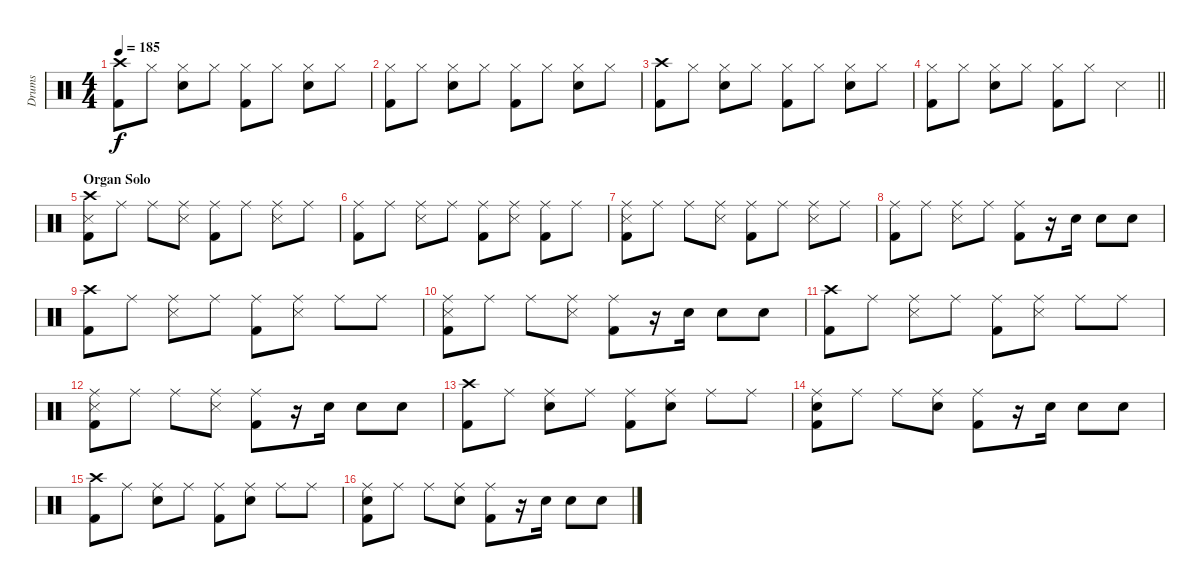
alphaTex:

\track ("Drums" "Drums") {instrument percussion}
\staff {score}
\articulation defaults
\ts (4 4)
\tempo 185
\clef neutral
\ks c
("Crash high (hit)" "Kick (hit) 2").8{dy f} "Hi-Hat (closed)".8 ("Hi-Hat (closed)" "Snare (hit) 2").8 "Hi-Hat (closed)".8 ("Hi-Hat (closed)" "Kick (hit) 2").8 "Hi-Hat (closed)".8 ("Hi-Hat (closed)" "Snare (hit) 2").8 "Hi-Hat (closed)".8 |
("Hi-Hat (closed)" "Kick (hit) 2").8 "Hi-Hat (closed)".8 ("Hi-Hat (closed)" "Snare (hit) 2").8 "Hi-Hat (closed)".8 ("Hi-Hat (closed)" "Kick (hit) 2").8 "Hi-Hat (closed)".8 ("Hi-Hat (closed)" "Snare (hit) 2").8 "Hi-Hat (closed)".8 |
("Crash high (hit)" "Kick (hit) 2").8 "Hi-Hat (closed)".8 ("Hi-Hat (closed)" "Snare (hit) 2").8 "Hi-Hat (closed)".8 ("Hi-Hat (closed)" "Kick (hit) 2").8 "Hi-Hat (closed)".8 ("Hi-Hat (closed)" "Snare (hit) 2").8 "Hi-Hat (closed)".8 |
\barLineRight lightlight
("Hi-Hat (closed)" "Kick (hit) 2").8 "Hi-Hat (closed)".8 ("Hi-Hat (closed)" "Snare (hit) 2").8 "Hi-Hat (closed)".8 ("Hi-Hat (closed)" "Kick (hit) 2").8 "Hi-Hat (closed)".8 "Snare (side stick) 3".4 |
\section ("" "Organ Solo")
("Crash high (hit)" "Snare (side stick) 3" "Kick (hit) 2").8 "Ride (middle)".8 "Ride (middle)".8 ("Ride (middle)" "Snare (side stick) 3").8 ("Ride (middle)" "Kick (hit) 2").8 "Ride (middle)".8 ("Ride (middle)" "Snare (side stick) 3").8 "Ride (middle)".8 |
("Ride (middle)" "Kick (hit) 2").8 "Ride (middle)".8 ("Ride (middle)" "Snare (side stick) 3").8 "Ride (middle)".8 ("Ride (middle)" "Kick (hit) 2").8 ("Ride (middle)" "Snare (side stick) 3").8 ("Ride (middle)" "Kick (hit) 2").8 "Ride (middle)".8 |
("Ride (middle)" "Snare (side stick) 3" "Kick (hit) 2").8 "Ride (middle)".8 "Ride (middle)".8 ("Ride (middle)" "Snare (side stick) 3").8 ("Ride (middle)" "Kick (hit) 2").8 "Ride (middle)".8 ("Ride (middle)" "Snare (side stick) 3").8 "Ride (middle)".8 |
("Ride (middle)" "Kick (hit) 2").8 "Ride (middle)".8 ("Ride (middle)" "Snare (side stick) 3").8 "Ride (middle)".8 ("Ride (middle)" "Kick (hit) 2").8 r.16 "Snare (hit) 2".16 "Snare (hit) 2".8 "Snare (hit) 2".8 |
("Crash high (hit)" "Kick (hit) 2").8 "Ride (middle)".8 ("Ride (middle)" "Snare (side stick) 3").8 "Ride (middle)".8 ("Ride (middle)" "Kick (hit) 2").8 ("Ride (middle)" "Snare (side stick) 3").8 "Ride (middle)".8 "Ride (middle)".8 |
("Ride (middle)" "Snare (side stick) 3" "Kick (hit) 2").8 "Ride (middle)".8 "Ride (middle)".8 ("Ride (middle)" "Snare (side stick) 3").8 ("Ride (middle)" "Kick (hit) 2").8 r.16 "Snare (hit) 2".16 "Snare (hit) 2".8 "Snare (hit) 2".8 |
("Crash high (hit)" "Kick (hit) 2").8 "Ride (middle)".8 ("Ride (middle)" "Snare (side stick) 3").8 "Ride (middle)".8 ("Ride (middle)" "Kick (hit) 2").8 ("Ride (middle)" "Snare (side stick) 3").8 "Ride (middle)".8 "Ride (middle)".8 |
("Ride (middle)" "Snare (side stick) 3" "Kick (hit) 2").8 "Ride (middle)".8 "Ride (middle)".8 ("Ride (middle)" "Snare (side stick) 3").8 ("Ride (middle)" "Kick (hit) 2").8 r.16 "Snare (hit) 2".16 "Snare (hit) 2".8 "Snare (hit) 2".8 |
("Crash high (hit)" "Kick (hit) 2").8 "Ride (middle)".8 ("Ride (middle)" "Snare (hit) 2").8 "Ride (middle)".8 ("Ride (middle)" "Kick (hit) 2").8 ("Ride (middle)" "Snare (hit) 2").8 "Ride (middle)".8 "Ride (middle)".8 |
("Ride (middle)" "Snare (hit) 2" "Kick (hit) 2").8 "Ride (middle)".8 "Ride (middle)".8 ("Ride (middle)" "Snare (hit) 2").8 ("Ride (middle)" "Kick (hit) 2").8 r.16 "Snare (hit) 2".16 "Snare (hit) 2".8 "Snare (hit) 2".8 |
("Crash high (hit)" "Kick (hit) 2").8 "Ride (middle)".8 ("Ride (middle)" "Snare (hit) 2").8 "Ride (middle)".8 ("Ride (middle)" "Kick (hit) 2").8 ("Ride (middle)" "Snare (hit) 2").8 "Ride (middle)".8 "Ride (middle)".8 |
("Ride (middle)" "Snare (hit) 2" "Kick (hit) 2").8 "Ride (middle)".8 "Ride (middle)".8 ("Ride (middle)" "Snare (hit) 2").8 ("Ride (middle)" "Kick (hit) 2").8 r.16 "Snare (hit) 2".16 "Snare (hit) 2".8 "Snare (hit) 2".8
